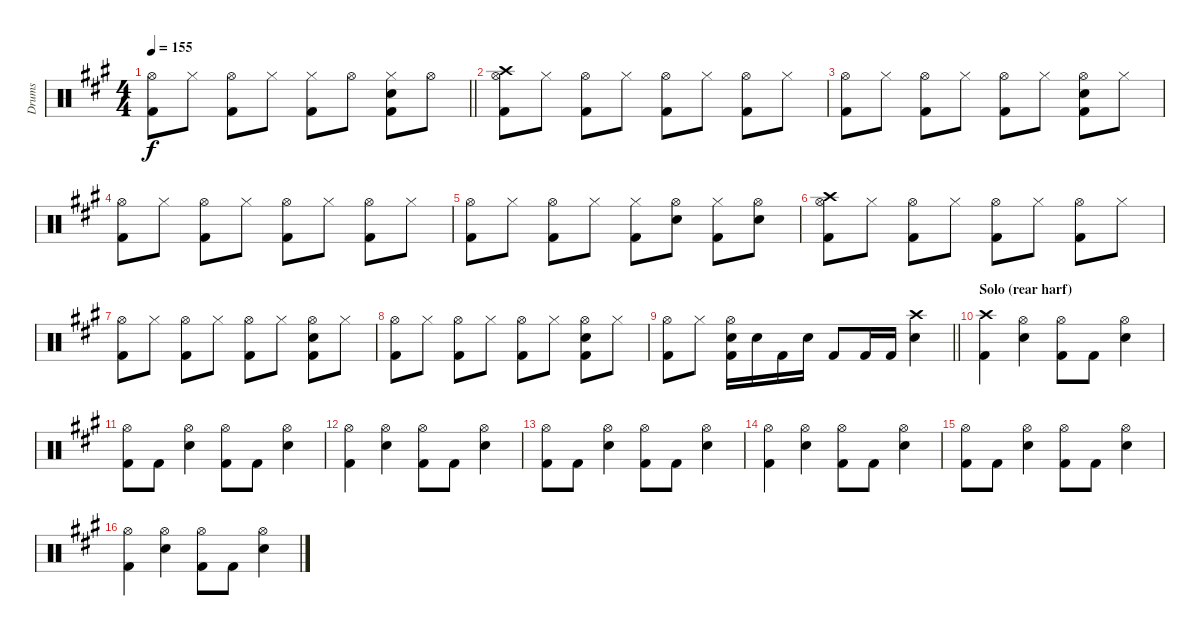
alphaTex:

\track ("Drums" "Drums") {instrument percussion}
\staff {score}
\articulation defaults
\ts (4 4)
\tempo 155
\clef neutral
\barLineRight lightlight
\ks a
("Hi-Hat (open)" "Kick (hit) 2").8{dy f} "Hi-Hat (closed)".8 ("Hi-Hat (open)" "Kick (hit) 2").8 "Hi-Hat (closed)".8 ("Hi-Hat (closed)" "Kick (hit) 2").8 "Hi-Hat (open)".8 ("Hi-Hat (closed)" "Snare (hit) 2" "Kick (hit) 2").8 "Hi-Hat (open)".8 |
("Hi-Hat (open)" "Crash high (hit)" "Kick (hit) 2").8 "Hi-Hat (closed)".8 ("Hi-Hat (open)" "Kick (hit) 2").8 "Hi-Hat (closed)".8 ("Hi-Hat (open)" "Kick (hit) 2").8 "Hi-Hat (closed)".8 ("Hi-Hat (open)" "Kick (hit) 2").8 "Hi-Hat (closed)".8 |
("Hi-Hat (open)" "Kick (hit) 2").8 "Hi-Hat (closed)".8 ("Hi-Hat (open)" "Kick (hit) 2").8 "Hi-Hat (closed)".8 ("Hi-Hat (open)" "Kick (hit) 2").8 "Hi-Hat (closed)".8 ("Hi-Hat (open)" "Snare (hit) 2" "Kick (hit) 2").8 "Hi-Hat (closed)".8 |
("Hi-Hat (open)" "Kick (hit) 2").8 "Hi-Hat (closed)".8 ("Hi-Hat (open)" "Kick (hit) 2").8 "Hi-Hat (closed)".8 ("Hi-Hat (open)" "Kick (hit) 2").8 "Hi-Hat (closed)".8 ("Hi-Hat (open)" "Kick (hit) 2").8 "Hi-Hat (closed)".8 |
("Hi-Hat (open)" "Kick (hit) 2").8 "Hi-Hat (closed)".8 ("Hi-Hat (open)" "Kick (hit) 2").8 "Hi-Hat (closed)".8 ("Hi-Hat (closed)" "Kick (hit) 2").8 ("Hi-Hat (open)" "Snare (hit) 2").8 ("Hi-Hat (closed)" "Kick (hit) 2").8 ("Hi-Hat (open)" "Snare (hit) 2").8 |
("Hi-Hat (open)" "Crash high (hit)" "Kick (hit) 2").8 "Hi-Hat (closed)".8 ("Hi-Hat (open)" "Kick (hit) 2").8 "Hi-Hat (closed)".8 ("Hi-Hat (open)" "Kick (hit) 2").8 "Hi-Hat (closed)".8 ("Hi-Hat (open)" "Kick (hit) 2").8 "Hi-Hat (closed)".8 |
("Hi-Hat (open)" "Kick (hit) 2").8 "Hi-Hat (closed)".8 ("Hi-Hat (open)" "Kick (hit) 2").8 "Hi-Hat (closed)".8 ("Hi-Hat (open)" "Kick (hit) 2").8 "Hi-Hat (closed)".8 ("Hi-Hat (open)" "Snare (hit) 2" "Kick (hit) 2").8 "Hi-Hat (closed)".8 |
("Hi-Hat (open)" "Kick (hit) 2").8 "Hi-Hat (closed)".8 ("Hi-Hat (open)" "Kick (hit) 2").8 "Hi-Hat (closed)".8 ("Hi-Hat (open)" "Kick (hit) 2").8 "Hi-Hat (closed)".8 ("Hi-Hat (open)" "Snare (hit) 2" "Kick (hit) 2").8 "Hi-Hat (closed)".8 |
\barLineRight lightlight
("Hi-Hat (open)" "Kick (hit) 2").8 "Hi-Hat (closed)".8 ("Hi-Hat (open)" "Snare (hit) 2" "Kick (hit) 2").16 "Snare (hit) 2".16 "Kick (hit) 2".16 "Snare (hit) 2".16 "Kick (hit) 2".8 "Kick (hit) 2".16 "Kick (hit) 2".16 ("Crash high (hit)" "Snare (hit) 2").4 |
\section ("" "Solo (rear harf)")
("Crash high (hit)" "Kick (hit) 2").4 ("Hi-Hat (open)" "Snare (hit) 2").4 ("Hi-Hat (open)" "Kick (hit) 2").8 "Kick (hit) 2".8 ("Hi-Hat (open)" "Snare (hit) 2").4 |
("Hi-Hat (open)" "Kick (hit) 2").8 "Kick (hit) 2".8 ("Hi-Hat (open)" "Snare (hit) 2").4 ("Hi-Hat (open)" "Kick (hit) 2").8 "Kick (hit) 2".8 ("Hi-Hat (open)" "Snare (hit) 2").4 |
("Hi-Hat (open)" "Kick (hit) 2").4 ("Hi-Hat (open)" "Snare (hit) 2").4 ("Hi-Hat (open)" "Kick (hit) 2").8 "Kick (hit) 2".8 ("Hi-Hat (open)" "Snare (hit) 2").4 |
("Hi-Hat (open)" "Kick (hit) 2").8 "Kick (hit) 2".8 ("Hi-Hat (open)" "Snare (hit) 2").4 ("Hi-Hat (open)" "Kick (hit) 2").8 "Kick (hit) 2".8 ("Hi-Hat (open)" "Snare (hit) 2").4 |
("Hi-Hat (open)" "Kick (hit) 2").4 ("Hi-Hat (open)" "Snare (hit) 2").4 ("Hi-Hat (open)" "Kick (hit) 2").8 "Kick (hit) 2".8 ("Hi-Hat (open)" "Snare (hit) 2").4 |
("Hi-Hat (open)" "Kick (hit) 2").8 "Kick (hit) 2".8 ("Hi-Hat (open)" "Snare (hit) 2").4 ("Hi-Hat (open)" "Kick (hit) 2").8 "Kick (hit) 2".8 ("Hi-Hat (open)" "Snare (hit) 2").4 |
("Hi-Hat (open)" "Kick (hit) 2").4 ("Hi-Hat (open)" "Snare (hit) 2").4 ("Hi-Hat (open)" "Kick (hit) 2").8 "Kick (hit) 2".8 ("Hi-Hat (open)" "Snare (hit) 2").4
